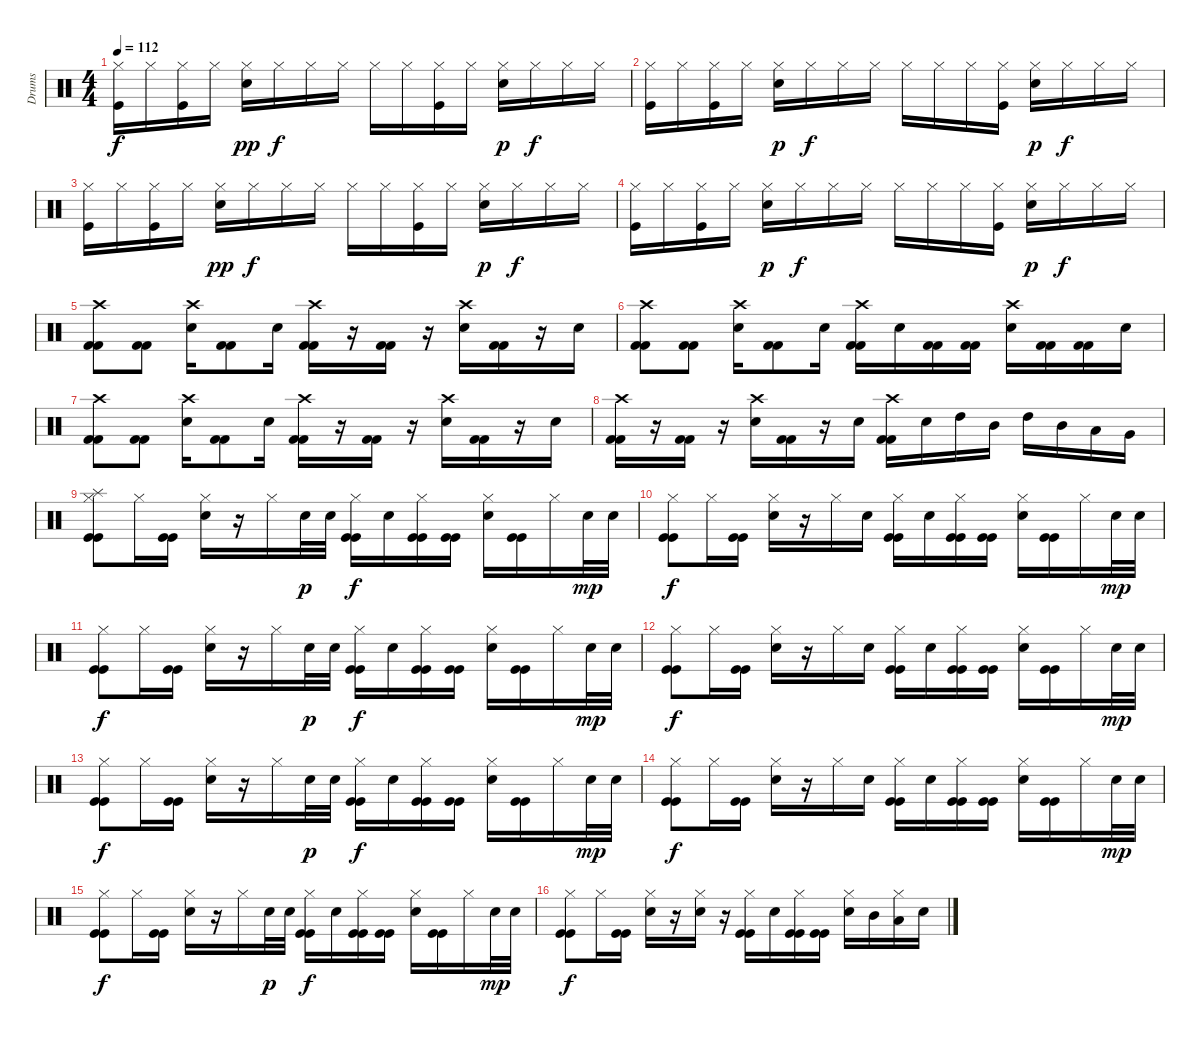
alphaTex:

\track ("Drums" "Drums") {instrument percussion}
\staff {score}
\articulation defaults
\ts (4 4)
\tempo 112
\clef neutral
\ks c
("Hi-Hat (closed)" "Kick (hit)").16{dy f} "Hi-Hat (closed)".16 ("Hi-Hat (closed)" "Kick (hit)").16 "Hi-Hat (closed)".16 ("Hi-Hat (closed)" "Electric Snare (hit)").16{dy pp} "Hi-Hat (closed)".16{dy f} "Hi-Hat (closed)".16 "Hi-Hat (closed)".16 "Hi-Hat (closed)".16 "Hi-Hat (closed)".16 ("Hi-Hat (closed)" "Kick (hit)").16 "Hi-Hat (closed)".16 ("Hi-Hat (closed)" "Electric Snare (hit)").16{dy p} "Hi-Hat (closed)".16{dy f} "Hi-Hat (closed)".16 "Hi-Hat (closed)".16 |
("Hi-Hat (closed)" "Kick (hit)").16 "Hi-Hat (closed)".16 ("Hi-Hat (closed)" "Kick (hit)").16 "Hi-Hat (closed)".16 ("Hi-Hat (closed)" "Electric Snare (hit)").16{dy p} "Hi-Hat (closed)".16{dy f} "Hi-Hat (closed)".16 "Hi-Hat (closed)".16 "Hi-Hat (closed)".16 "Hi-Hat (closed)".16 "Hi-Hat (closed)".16 ("Hi-Hat (closed)" "Kick (hit)").16 ("Hi-Hat (closed)" "Electric Snare (hit)").16{dy p} "Hi-Hat (closed)".16{dy f} "Hi-Hat (closed)".16 "Hi-Hat (closed)".16 |
("Hi-Hat (closed)" "Kick (hit)").16 "Hi-Hat (closed)".16 ("Hi-Hat (closed)" "Kick (hit)").16 "Hi-Hat (closed)".16 ("Hi-Hat (closed)" "Electric Snare (hit)").16{dy pp} "Hi-Hat (closed)".16{dy f} "Hi-Hat (closed)".16 "Hi-Hat (closed)".16 "Hi-Hat (closed)".16 "Hi-Hat (closed)".16 ("Hi-Hat (closed)" "Kick (hit)").16 "Hi-Hat (closed)".16 ("Hi-Hat (closed)" "Electric Snare (hit)").16{dy p} "Hi-Hat (closed)".16{dy f} "Hi-Hat (closed)".16 "Hi-Hat (closed)".16 |
("Hi-Hat (closed)" "Kick (hit)").16 "Hi-Hat (closed)".16 ("Hi-Hat (closed)" "Kick (hit)").16 "Hi-Hat (closed)".16 ("Hi-Hat (closed)" "Electric Snare (hit)").16{dy p} "Hi-Hat (closed)".16{dy f} "Hi-Hat (closed)".16 "Hi-Hat (closed)".16 "Hi-Hat (closed)".16 "Hi-Hat (closed)".16 "Hi-Hat (closed)".16 ("Hi-Hat (closed)" "Kick (hit)").16 ("Hi-Hat (closed)" "Electric Snare (hit)").16{dy p} "Hi-Hat (closed)".16{dy f} "Hi-Hat (closed)".16 "Hi-Hat (closed)".16 |
("Crash high (hit)" "Kick (hit) 2" "Kick (hit) 2").8 ("Kick (hit) 2" "Kick (hit) 2").8 ("Crash high (hit)" "Electric Snare (hit)").16 ("Kick (hit) 2" "Kick (hit) 2").8 "Electric Snare (hit)".16 ("Crash high (hit)" "Kick (hit) 2" "Kick (hit) 2").16 r.16 ("Kick (hit) 2" "Kick (hit) 2").16 r.16 ("Crash high (hit)" "Electric Snare (hit)").16 ("Kick (hit) 2" "Kick (hit) 2").16 r.16 "Electric Snare (hit)".16 |
("Crash high (hit)" "Kick (hit) 2" "Kick (hit) 2").8 ("Kick (hit) 2" "Kick (hit) 2").8 ("Crash high (hit)" "Electric Snare (hit)").16 ("Kick (hit) 2" "Kick (hit) 2").8 "Electric Snare (hit)".16 ("Crash high (hit)" "Kick (hit) 2" "Kick (hit) 2").16 "Electric Snare (hit)".16 ("Kick (hit) 2" "Kick (hit) 2").16 ("Kick (hit) 2" "Kick (hit) 2").16 ("Crash high (hit)" "Electric Snare (hit)").16 ("Kick (hit) 2" "Kick (hit) 2").16 ("Kick (hit) 2" "Kick (hit) 2").16 "Electric Snare (hit)".16 |
("Crash high (hit)" "Kick (hit) 2" "Kick (hit) 2").8 ("Kick (hit) 2" "Kick (hit) 2").8 ("Crash high (hit)" "Electric Snare (hit)").16 ("Kick (hit) 2" "Kick (hit) 2").8 "Electric Snare (hit)".16 ("Crash high (hit)" "Kick (hit) 2" "Kick (hit) 2").16 r.16 ("Kick (hit) 2" "Kick (hit) 2").16 r.16 ("Crash high (hit)" "Electric Snare (hit)").16 ("Kick (hit) 2" "Kick (hit) 2").16 r.16 "Electric Snare (hit)".16 |
("Crash high (hit)" "Kick (hit) 2" "Kick (hit) 2").16 r.16 ("Kick (hit) 2" "Kick (hit) 2").16 r.16 ("Crash high (hit)" "Electric Snare (hit)").16 ("Kick (hit) 2" "Kick (hit) 2").16 r.16 "Electric Snare (hit)".16 ("Crash high (hit)" "Kick (hit) 2" "Kick (hit) 2").16 "Electric Snare (hit)".16 "High Tom (hit)".16 "Mid Tom (hit)".16 "High Tom (hit)".16 "Mid Tom (hit)".16 "Low Tom (hit)".16 "Very Low Tom (hit)".16 |
("Hi-Hat (closed)" "Splash (hit)" "Kick (hit)" "Kick (hit)").8 "Hi-Hat (closed)".16 ("Kick (hit)" "Kick (hit)").16 ("Hi-Hat (closed)" "Electric Snare (hit)").16 r.16 "Hi-Hat (closed)".16 "Electric Snare (hit)".32{dy p} "Electric Snare (hit)".32 ("Hi-Hat (closed)" "Kick (hit)" "Kick (hit)").16{dy f} "Electric Snare (hit)".16 ("Hi-Hat (closed)" "Kick (hit)" "Kick (hit)").16 ("Kick (hit)" "Kick (hit)").16 ("Hi-Hat (closed)" "Electric Snare (hit)").16 ("Kick (hit)" "Kick (hit)").16 "Hi-Hat (closed)".16 "Electric Snare (hit)".32{dy mp} "Electric Snare (hit)".32 |
("Hi-Hat (closed)" "Kick (hit)" "Kick (hit)").8{dy f} "Hi-Hat (closed)".16 ("Kick (hit)" "Kick (hit)").16 ("Hi-Hat (closed)" "Electric Snare (hit)").16 r.16 "Hi-Hat (closed)".16 "Electric Snare (hit)".16 ("Hi-Hat (closed)" "Kick (hit)" "Kick (hit)").16 "Electric Snare (hit)".16 ("Hi-Hat (closed)" "Kick (hit)" "Kick (hit)").16 ("Kick (hit)" "Kick (hit)").16 ("Hi-Hat (closed)" "Electric Snare (hit)").16 ("Kick (hit)" "Kick (hit)").16 "Hi-Hat (closed)".16 "Electric Snare (hit)".32{dy mp} "Electric Snare (hit)".32 |
("Hi-Hat (closed)" "Kick (hit)" "Kick (hit)").8{dy f} "Hi-Hat (closed)".16 ("Kick (hit)" "Kick (hit)").16 ("Hi-Hat (closed)" "Electric Snare (hit)").16 r.16 "Hi-Hat (closed)".16 "Electric Snare (hit)".32{dy p} "Electric Snare (hit)".32 ("Hi-Hat (closed)" "Kick (hit)" "Kick (hit)").16{dy f} "Electric Snare (hit)".16 ("Hi-Hat (closed)" "Kick (hit)" "Kick (hit)").16 ("Kick (hit)" "Kick (hit)").16 ("Hi-Hat (closed)" "Electric Snare (hit)").16 ("Kick (hit)" "Kick (hit)").16 "Hi-Hat (closed)".16 "Electric Snare (hit)".32{dy mp} "Electric Snare (hit)".32 |
("Hi-Hat (closed)" "Kick (hit)" "Kick (hit)").8{dy f} "Hi-Hat (closed)".16 ("Kick (hit)" "Kick (hit)").16 ("Hi-Hat (closed)" "Electric Snare (hit)").16 r.16 "Hi-Hat (closed)".16 "Electric Snare (hit)".16 ("Hi-Hat (closed)" "Kick (hit)" "Kick (hit)").16 "Electric Snare (hit)".16 ("Hi-Hat (closed)" "Kick (hit)" "Kick (hit)").16 ("Kick (hit)" "Kick (hit)").16 ("Hi-Hat (closed)" "Electric Snare (hit)").16 ("Kick (hit)" "Kick (hit)").16 "Hi-Hat (closed)".16 "Electric Snare (hit)".32{dy mp} "Electric Snare (hit)".32 |
("Hi-Hat (closed)" "Kick (hit)" "Kick (hit)").8{dy f} "Hi-Hat (closed)".16 ("Kick (hit)" "Kick (hit)").16 ("Hi-Hat (closed)" "Electric Snare (hit)").16 r.16 "Hi-Hat (closed)".16 "Electric Snare (hit)".32{dy p} "Electric Snare (hit)".32 ("Hi-Hat (closed)" "Kick (hit)" "Kick (hit)").16{dy f} "Electric Snare (hit)".16 ("Hi-Hat (closed)" "Kick (hit)" "Kick (hit)").16 ("Kick (hit)" "Kick (hit)").16 ("Hi-Hat (closed)" "Electric Snare (hit)").16 ("Kick (hit)" "Kick (hit)").16 "Hi-Hat (closed)".16 "Electric Snare (hit)".32{dy mp} "Electric Snare (hit)".32 |
("Hi-Hat (closed)" "Kick (hit)" "Kick (hit)").8{dy f} "Hi-Hat (closed)".16 ("Kick (hit)" "Kick (hit)").16 ("Hi-Hat (closed)" "Electric Snare (hit)").16 r.16 "Hi-Hat (closed)".16 "Electric Snare (hit)".16 ("Hi-Hat (closed)" "Kick (hit)" "Kick (hit)").16 "Electric Snare (hit)".16 ("Hi-Hat (closed)" "Kick (hit)" "Kick (hit)").16 ("Kick (hit)" "Kick (hit)").16 ("Hi-Hat (closed)" "Electric Snare (hit)").16 ("Kick (hit)" "Kick (hit)").16 "Hi-Hat (closed)".16 "Electric Snare (hit)".32{dy mp} "Electric Snare (hit)".32 |
("Hi-Hat (closed)" "Kick (hit)" "Kick (hit)").8{dy f} "Hi-Hat (closed)".16 ("Kick (hit)" "Kick (hit)").16 ("Hi-Hat (closed)" "Electric Snare (hit)").16 r.16 "Hi-Hat (closed)".16 "Electric Snare (hit)".32{dy p} "Electric Snare (hit)".32 ("Hi-Hat (closed)" "Kick (hit)" "Kick (hit)").16{dy f} "Electric Snare (hit)".16 ("Hi-Hat (closed)" "Kick (hit)" "Kick (hit)").16 ("Kick (hit)" "Kick (hit)").16 ("Hi-Hat (closed)" "Electric Snare (hit)").16 ("Kick (hit)" "Kick (hit)").16 "Hi-Hat (closed)".16 "Electric Snare (hit)".32{dy mp} "Electric Snare (hit)".32 |
("Hi-Hat (closed)" "Kick (hit)" "Kick (hit)").8{dy f} "Hi-Hat (closed)".16 ("Kick (hit)" "Kick (hit)").16 ("Hi-Hat (closed)" "Electric Snare (hit)").16 r.16 ("Hi-Hat (closed)" "Electric Snare (hit)").16 r.16 ("Hi-Hat (closed)" "Kick (hit)" "Kick (hit)").16 "Electric Snare (hit)".16 ("Hi-Hat (closed)" "Kick (hit)" "Kick (hit)").16 ("Kick (hit)" "Kick (hit)").16 ("Hi-Hat (closed)" "Electric Snare (hit)").16 "Mid Tom (hit)".16 ("Hi-Hat (closed)" "Low Tom (hit)").16 "Electric Snare (hit)".16
